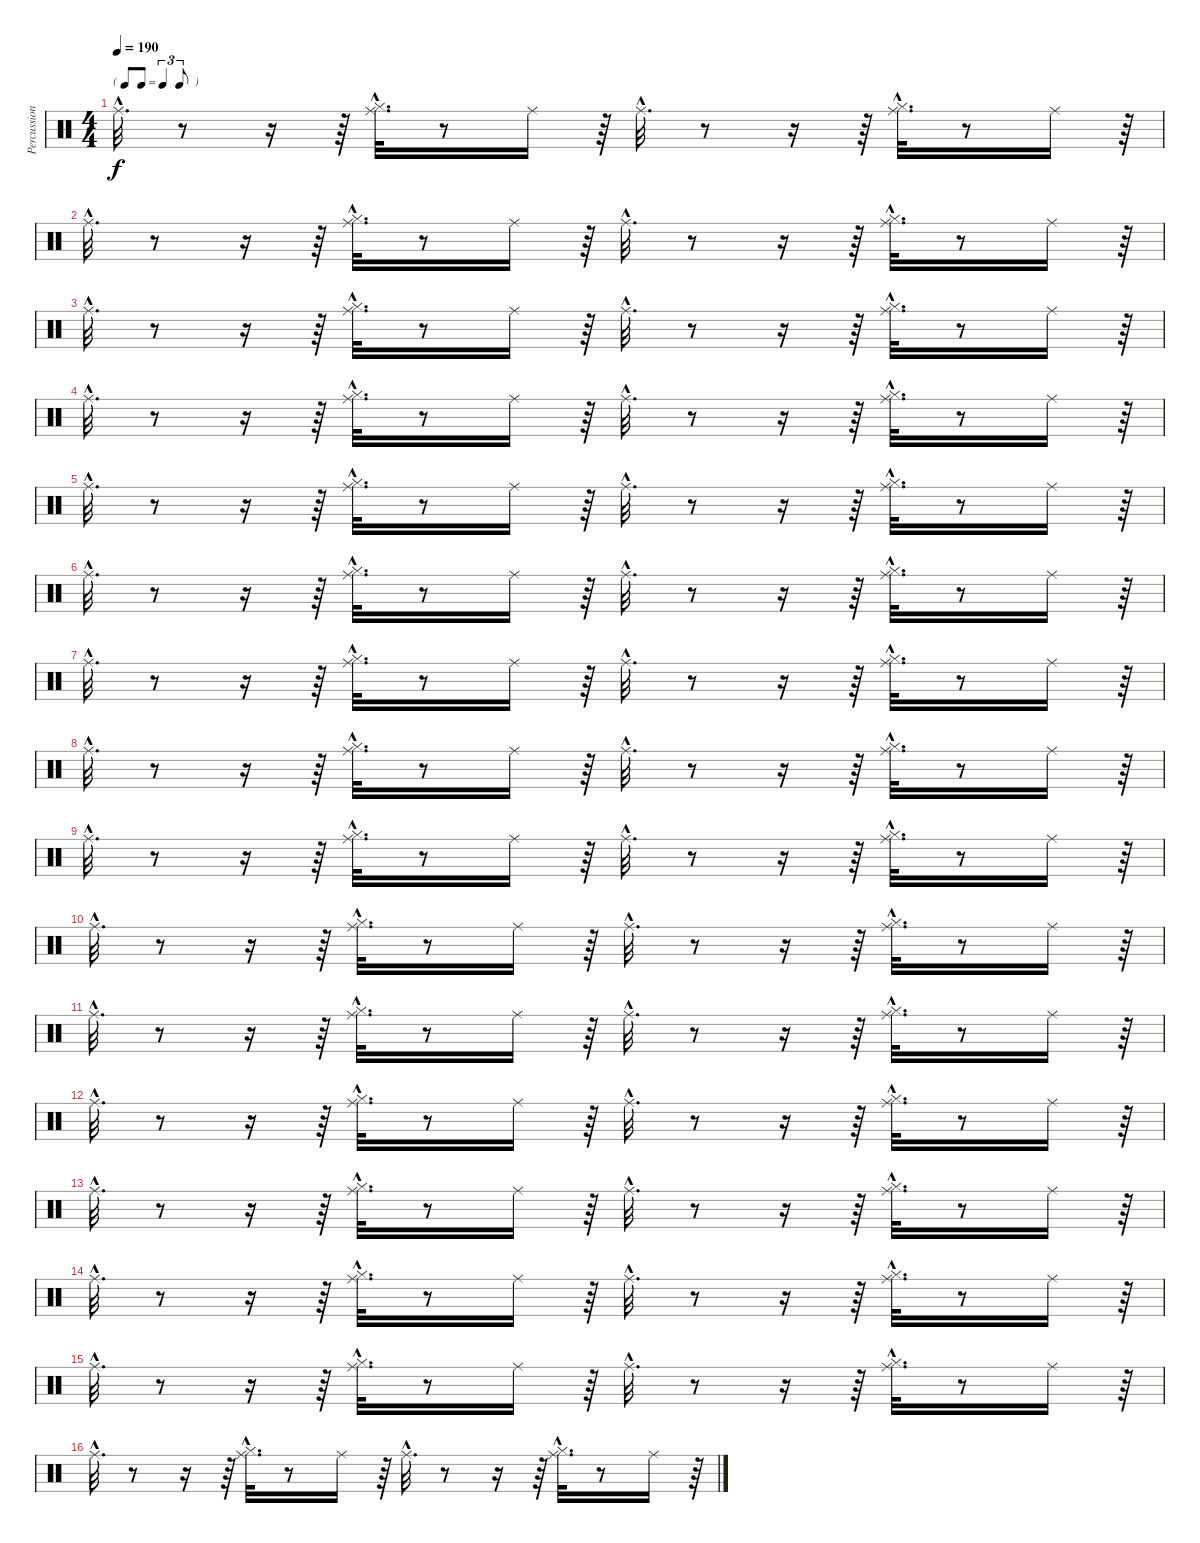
\track ("Percussions" "Percussion") {instrument percussion}
\staff {score}
\articulation defaults
\ts (4 4)
\tf triplet8th
\tempo 190
\clef neutral
\ks c "Ride (middle)"{hac}.32{d dy f}
r.8 r.16 r.64 ("Hi-Hat (closed)"{hac} "Ride (middle)"{hac}).32{d} r.8 "Ride (middle)".16 r.64 "Ride (middle)"{hac}.32{d} r.8 r.16 r.64 ("Hi-Hat (closed)"{hac} "Ride (middle)"{hac}).32{d} r.8 "Ride (middle)".16 r.64 |
"Ride (middle)"{hac}.32{d} r.8 r.16 r.64 ("Hi-Hat (closed)"{hac} "Ride (middle)"{hac}).32{d} r.8 "Ride (middle)".16 r.64 "Ride (middle)"{hac}.32{d} r.8 r.16 r.64 ("Hi-Hat (closed)"{hac} "Ride (middle)"{hac}).32{d} r.8 "Ride (middle)".16 r.64 |
"Ride (middle)"{hac}.32{d} r.8 r.16 r.64 ("Hi-Hat (closed)"{hac} "Ride (middle)"{hac}).32{d} r.8 "Ride (middle)".16 r.64 "Ride (middle)"{hac}.32{d} r.8 r.16 r.64 ("Hi-Hat (closed)"{hac} "Ride (middle)"{hac}).32{d} r.8 "Ride (middle)".16 r.64 |
"Ride (middle)"{hac}.32{d} r.8 r.16 r.64 ("Hi-Hat (closed)"{hac} "Ride (middle)"{hac}).32{d} r.8 "Ride (middle)".16 r.64 "Ride (middle)"{hac}.32{d} r.8 r.16 r.64 ("Hi-Hat (closed)"{hac} "Ride (middle)"{hac}).32{d} r.8 "Ride (middle)".16 r.64 |
"Ride (middle)"{hac}.32{d} r.8 r.16 r.64 ("Hi-Hat (closed)"{hac} "Ride (middle)"{hac}).32{d} r.8 "Ride (middle)".16 r.64 "Ride (middle)"{hac}.32{d} r.8 r.16 r.64 ("Hi-Hat (closed)"{hac} "Ride (middle)"{hac}).32{d} r.8 "Ride (middle)".16 r.64 |
"Ride (middle)"{hac}.32{d} r.8 r.16 r.64 ("Hi-Hat (closed)"{hac} "Ride (middle)"{hac}).32{d} r.8 "Ride (middle)".16 r.64 "Ride (middle)"{hac}.32{d} r.8 r.16 r.64 ("Hi-Hat (closed)"{hac} "Ride (middle)"{hac}).32{d} r.8 "Ride (middle)".16 r.64 |
"Ride (middle)"{hac}.32{d} r.8 r.16 r.64 ("Hi-Hat (closed)"{hac} "Ride (middle)"{hac}).32{d} r.8 "Ride (middle)".16 r.64 "Ride (middle)"{hac}.32{d} r.8 r.16 r.64 ("Hi-Hat (closed)"{hac} "Ride (middle)"{hac}).32{d} r.8 "Ride (middle)".16 r.64 |
"Ride (middle)"{hac}.32{d} r.8 r.16 r.64 ("Hi-Hat (closed)"{hac} "Ride (middle)"{hac}).32{d} r.8 "Ride (middle)".16 r.64 "Ride (middle)"{hac}.32{d} r.8 r.16 r.64 ("Hi-Hat (closed)"{hac} "Ride (middle)"{hac}).32{d} r.8 "Ride (middle)".16 r.64 |
"Ride (middle)"{hac}.32{d} r.8 r.16 r.64 ("Hi-Hat (closed)"{hac} "Ride (middle)"{hac}).32{d} r.8 "Ride (middle)".16 r.64 "Ride (middle)"{hac}.32{d} r.8 r.16 r.64 ("Hi-Hat (closed)"{hac} "Ride (middle)"{hac}).32{d} r.8 "Ride (middle)".16 r.64 |
"Ride (middle)"{hac}.32{d} r.8 r.16 r.64 ("Hi-Hat (closed)"{hac} "Ride (middle)"{hac}).32{d} r.8 "Ride (middle)".16 r.64 "Ride (middle)"{hac}.32{d} r.8 r.16 r.64 ("Hi-Hat (closed)"{hac} "Ride (middle)"{hac}).32{d} r.8 "Ride (middle)".16 r.64 |
"Ride (middle)"{hac}.32{d} r.8 r.16 r.64 ("Hi-Hat (closed)"{hac} "Ride (middle)"{hac}).32{d} r.8 "Ride (middle)".16 r.64 "Ride (middle)"{hac}.32{d} r.8 r.16 r.64 ("Hi-Hat (closed)"{hac} "Ride (middle)"{hac}).32{d} r.8 "Ride (middle)".16 r.64 |
"Ride (middle)"{hac}.32{d} r.8 r.16 r.64 ("Hi-Hat (closed)"{hac} "Ride (middle)"{hac}).32{d} r.8 "Ride (middle)".16 r.64 "Ride (middle)"{hac}.32{d} r.8 r.16 r.64 ("Hi-Hat (closed)"{hac} "Ride (middle)"{hac}).32{d} r.8 "Ride (middle)".16 r.64 |
"Ride (middle)"{hac}.32{d} r.8 r.16 r.64 ("Hi-Hat (closed)"{hac} "Ride (middle)"{hac}).32{d} r.8 "Ride (middle)".16 r.64 "Ride (middle)"{hac}.32{d} r.8 r.16 r.64 ("Hi-Hat (closed)"{hac} "Ride (middle)"{hac}).32{d} r.8 "Ride (middle)".16 r.64 |
"Ride (middle)"{hac}.32{d} r.8 r.16 r.64 ("Hi-Hat (closed)"{hac} "Ride (middle)"{hac}).32{d} r.8 "Ride (middle)".16 r.64 "Ride (middle)"{hac}.32{d} r.8 r.16 r.64 ("Hi-Hat (closed)"{hac} "Ride (middle)"{hac}).32{d} r.8 "Ride (middle)".16 r.64 |
"Ride (middle)"{hac}.32{d} r.8 r.16 r.64 ("Hi-Hat (closed)"{hac} "Ride (middle)"{hac}).32{d} r.8 "Ride (middle)".16 r.64 "Ride (middle)"{hac}.32{d} r.8 r.16 r.64 ("Hi-Hat (closed)"{hac} "Ride (middle)"{hac}).32{d} r.8 "Ride (middle)".16 r.64 |
"Ride (middle)"{hac}.32{d} r.8 r.16 r.64 ("Hi-Hat (closed)"{hac} "Ride (middle)"{hac}).32{d} r.8 "Ride (middle)".16 r.64 "Ride (middle)"{hac}.32{d} r.8 r.16 r.64 ("Hi-Hat (closed)"{hac} "Ride (middle)"{hac}).32{d} r.8 "Ride (middle)".16 r.64
